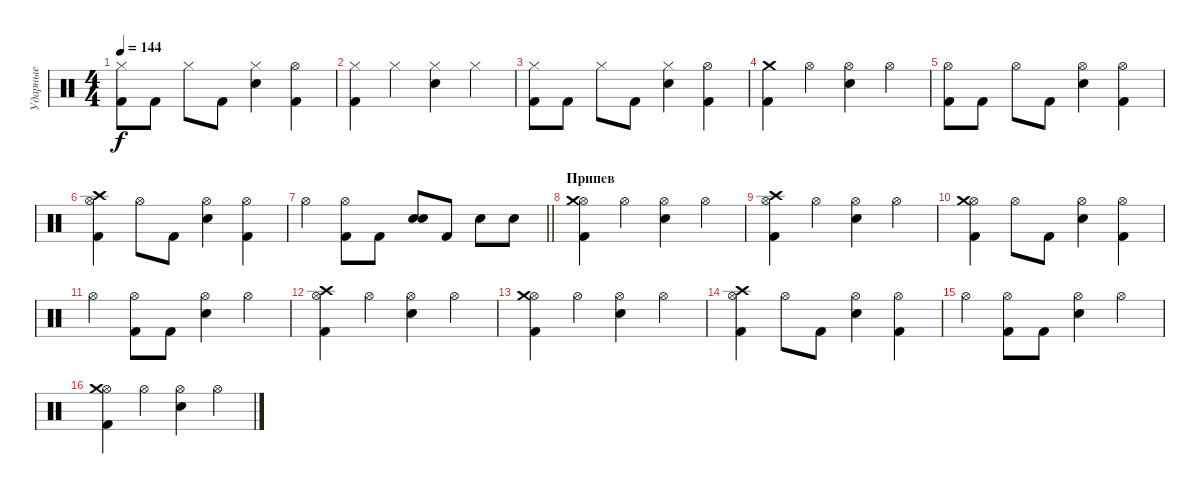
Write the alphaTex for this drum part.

\track ("Ударные" "Ударные") {instrument percussion}
\staff {score}
\articulation defaults
\ts (4 4)
\tempo 144
\clef neutral
\ks c
("Kick (hit) 2" "Hi-Hat (closed)").8{dy f} "Kick (hit) 2".8 "Hi-Hat (closed)".8 "Kick (hit) 2".8 ("Snare (hit) 2" "Hi-Hat (closed)").4 ("Kick (hit) 2" "Hi-Hat (open)").4 |
("Kick (hit) 2" "Hi-Hat (closed)").4 "Hi-Hat (closed)".4 ("Snare (hit) 2" "Hi-Hat (closed)").4 "Hi-Hat (closed)".4 |
("Kick (hit) 2" "Hi-Hat (closed)").8 "Kick (hit) 2".8 "Hi-Hat (closed)".8 "Kick (hit) 2".8 ("Snare (hit) 2" "Hi-Hat (closed)").4 ("Kick (hit) 2" "Hi-Hat (open)").4 |
("Kick (hit) 2" "Crash medium (hit)").4 "Hi-Hat (open)".4 ("Snare (hit) 2" "Hi-Hat (open)").4 "Hi-Hat (open)".4 |
("Kick (hit) 2" "Hi-Hat (open)").8 "Kick (hit) 2".8 "Hi-Hat (open)".8 "Kick (hit) 2".8 ("Snare (hit) 2" "Hi-Hat (open)").4 ("Kick (hit) 2" "Hi-Hat (open)").4 |
("Kick (hit) 2" "Hi-Hat (open)" "Crash high (hit)").4 "Hi-Hat (open)".8 "Kick (hit) 2".8 ("Snare (hit) 2" "Hi-Hat (open)").4 ("Kick (hit) 2" "Hi-Hat (open)").4 |
\barLineRight lightlight "Hi-Hat (open)".4
("Kick (hit) 2" "Hi-Hat (open)").8 "Kick (hit) 2".8 ("Snare (hit) 2" "Snare (hit) 2").8 "Kick (hit) 2".8 "Snare (hit) 2".8 "Snare (hit) 2".8 |
\section ("" "Припев")
("Kick (hit) 2" "Hi-Hat (open)" "Crash medium (hit)").4 "Hi-Hat (open)".4 ("Snare (hit) 2" "Hi-Hat (open)").4 "Hi-Hat (open)".4 |
("Kick (hit) 2" "Hi-Hat (open)" "Crash high (hit)").4 "Hi-Hat (open)".4 ("Snare (hit) 2" "Hi-Hat (open)").4 "Hi-Hat (open)".4 |
("Kick (hit) 2" "Hi-Hat (open)" "Crash medium (hit)").4 "Hi-Hat (open)".8 "Kick (hit) 2".8 ("Snare (hit) 2" "Hi-Hat (open)").4 ("Kick (hit) 2" "Hi-Hat (open)").4 |
"Hi-Hat (open)".4 ("Kick (hit) 2" "Hi-Hat (open)").8 "Kick (hit) 2".8 ("Snare (hit) 2" "Hi-Hat (open)").4 "Hi-Hat (open)".4 |
("Kick (hit) 2" "Hi-Hat (open)" "Crash high (hit)").4 "Hi-Hat (open)".4 ("Snare (hit) 2" "Hi-Hat (open)").4 "Hi-Hat (open)".4 |
("Kick (hit) 2" "Hi-Hat (open)" "Crash medium (hit)").4 "Hi-Hat (open)".4 ("Snare (hit) 2" "Hi-Hat (open)").4 "Hi-Hat (open)".4 |
("Kick (hit) 2" "Hi-Hat (open)" "Crash high (hit)").4 "Hi-Hat (open)".8 "Kick (hit) 2".8 ("Snare (hit) 2" "Hi-Hat (open)").4 ("Kick (hit) 2" "Hi-Hat (open)").4 |
"Hi-Hat (open)".4 ("Kick (hit) 2" "Hi-Hat (open)").8 "Kick (hit) 2".8 ("Snare (hit) 2" "Hi-Hat (open)").4 "Hi-Hat (open)".4 |
("Kick (hit) 2" "Hi-Hat (open)" "Crash medium (hit)").4 "Hi-Hat (open)".4 ("Snare (hit) 2" "Hi-Hat (open)").4 "Hi-Hat (open)".4
